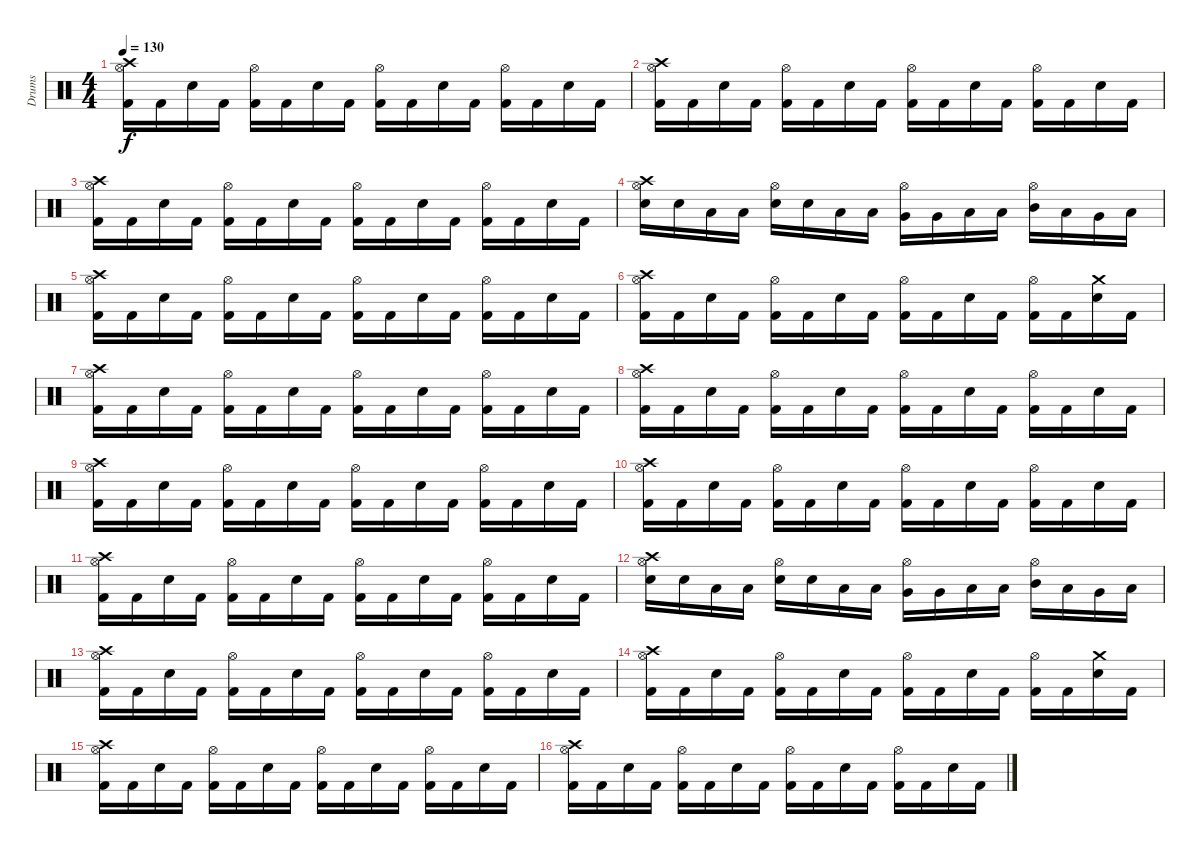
\track ("Drums" "Drums") {instrument percussion}
\staff {score}
\articulation defaults
\ts (4 4)
\tempo 130
\clef neutral
\ks c
("Crash high (hit)" "Hi-Hat (open)" "Kick (hit) 2").16{dy f} "Kick (hit) 2".16 "Electric Snare (hit)".16 "Kick (hit) 2".16 ("Hi-Hat (open)" "Kick (hit) 2").16 "Kick (hit) 2".16 "Electric Snare (hit)".16 "Kick (hit) 2".16 ("Hi-Hat (open)" "Kick (hit) 2").16 "Kick (hit) 2".16 "Electric Snare (hit)".16 "Kick (hit) 2".16 ("Hi-Hat (open)" "Kick (hit) 2").16 "Kick (hit) 2".16 "Electric Snare (hit)".16 "Kick (hit) 2".16 |
("Crash high (hit)" "Hi-Hat (open)" "Kick (hit) 2").16 "Kick (hit) 2".16 "Electric Snare (hit)".16 "Kick (hit) 2".16 ("Hi-Hat (open)" "Kick (hit) 2").16 "Kick (hit) 2".16 "Electric Snare (hit)".16 "Kick (hit) 2".16 ("Hi-Hat (open)" "Kick (hit) 2").16 "Kick (hit) 2".16 "Electric Snare (hit)".16 "Kick (hit) 2".16 ("Hi-Hat (open)" "Kick (hit) 2").16 "Kick (hit) 2".16 "Electric Snare (hit)".16 "Kick (hit) 2".16 |
("Crash high (hit)" "Hi-Hat (open)" "Kick (hit) 2").16 "Kick (hit) 2".16 "Electric Snare (hit)".16 "Kick (hit) 2".16 ("Hi-Hat (open)" "Kick (hit) 2").16 "Kick (hit) 2".16 "Electric Snare (hit)".16 "Kick (hit) 2".16 ("Hi-Hat (open)" "Kick (hit) 2").16 "Kick (hit) 2".16 "Electric Snare (hit)".16 "Kick (hit) 2".16 ("Hi-Hat (open)" "Kick (hit) 2").16 "Kick (hit) 2".16 "Electric Snare (hit)".16 "Kick (hit) 2".16 |
("Crash high (hit)" "Hi-Hat (open)" "Electric Snare (hit)").16 "Electric Snare (hit)".16 "Low Tom (hit)".16 "Low Tom (hit)".16 ("Hi-Hat (open)" "Electric Snare (hit)").16 "Electric Snare (hit)".16 "Low Tom (hit)".16 "Low Tom (hit)".16 ("Hi-Hat (open)" "Very Low Tom (hit)").16 "Very Low Tom (hit)".16 "Low Floor Tom (hit)".16 "Low Floor Tom (hit)".16 ("Hi-Hat (open)" "Mid Tom (hit)").16 "Low Tom (hit)".16 "Very Low Tom (hit)".16 "Low Floor Tom (hit)".16 |
("Crash high (hit)" "Hi-Hat (open)" "Kick (hit) 2").16 "Kick (hit) 2".16 "Electric Snare (hit)".16 "Kick (hit) 2".16 ("Hi-Hat (open)" "Kick (hit) 2").16 "Kick (hit) 2".16 "Electric Snare (hit)".16 "Kick (hit) 2".16 ("Hi-Hat (open)" "Kick (hit) 2").16 "Kick (hit) 2".16 "Electric Snare (hit)".16 "Kick (hit) 2".16 ("Hi-Hat (open)" "Kick (hit) 2").16 "Kick (hit) 2".16 "Electric Snare (hit)".16 "Kick (hit) 2".16 |
("Crash high (hit)" "Hi-Hat (open)" "Kick (hit) 2").16 "Kick (hit) 2".16 "Electric Snare (hit)".16 "Kick (hit) 2".16 ("Hi-Hat (open)" "Kick (hit) 2").16 "Kick (hit) 2".16 "Electric Snare (hit)".16 "Kick (hit) 2".16 ("Hi-Hat (open)" "Kick (hit) 2").16 "Kick (hit) 2".16 "Electric Snare (hit)".16 "Kick (hit) 2".16 ("Hi-Hat (open)" "Kick (hit) 2").16 "Kick (hit) 2".16 ("Crash medium (hit)" "Electric Snare (hit)").16 "Kick (hit) 2".16 |
("Crash high (hit)" "Hi-Hat (open)" "Kick (hit) 2").16 "Kick (hit) 2".16 "Electric Snare (hit)".16 "Kick (hit) 2".16 ("Hi-Hat (open)" "Kick (hit) 2").16 "Kick (hit) 2".16 "Electric Snare (hit)".16 "Kick (hit) 2".16 ("Hi-Hat (open)" "Kick (hit) 2").16 "Kick (hit) 2".16 "Electric Snare (hit)".16 "Kick (hit) 2".16 ("Hi-Hat (open)" "Kick (hit) 2").16 "Kick (hit) 2".16 "Electric Snare (hit)".16 "Kick (hit) 2".16 |
("Crash high (hit)" "Hi-Hat (open)" "Kick (hit) 2").16 "Kick (hit) 2".16 "Electric Snare (hit)".16 "Kick (hit) 2".16 ("Hi-Hat (open)" "Kick (hit) 2").16 "Kick (hit) 2".16 "Electric Snare (hit)".16 "Kick (hit) 2".16 ("Hi-Hat (open)" "Kick (hit) 2").16 "Kick (hit) 2".16 "Electric Snare (hit)".16 "Kick (hit) 2".16 ("Hi-Hat (open)" "Kick (hit) 2").16 "Kick (hit) 2".16 "Electric Snare (hit)".16 "Kick (hit) 2".16 |
("Crash high (hit)" "Hi-Hat (open)" "Kick (hit) 2").16 "Kick (hit) 2".16 "Electric Snare (hit)".16 "Kick (hit) 2".16 ("Hi-Hat (open)" "Kick (hit) 2").16 "Kick (hit) 2".16 "Electric Snare (hit)".16 "Kick (hit) 2".16 ("Hi-Hat (open)" "Kick (hit) 2").16 "Kick (hit) 2".16 "Electric Snare (hit)".16 "Kick (hit) 2".16 ("Hi-Hat (open)" "Kick (hit) 2").16 "Kick (hit) 2".16 "Electric Snare (hit)".16 "Kick (hit) 2".16 |
("Crash high (hit)" "Hi-Hat (open)" "Kick (hit) 2").16 "Kick (hit) 2".16 "Electric Snare (hit)".16 "Kick (hit) 2".16 ("Hi-Hat (open)" "Kick (hit) 2").16 "Kick (hit) 2".16 "Electric Snare (hit)".16 "Kick (hit) 2".16 ("Hi-Hat (open)" "Kick (hit) 2").16 "Kick (hit) 2".16 "Electric Snare (hit)".16 "Kick (hit) 2".16 ("Hi-Hat (open)" "Kick (hit) 2").16 "Kick (hit) 2".16 "Electric Snare (hit)".16 "Kick (hit) 2".16 |
("Crash high (hit)" "Hi-Hat (open)" "Kick (hit) 2").16 "Kick (hit) 2".16 "Electric Snare (hit)".16 "Kick (hit) 2".16 ("Hi-Hat (open)" "Kick (hit) 2").16 "Kick (hit) 2".16 "Electric Snare (hit)".16 "Kick (hit) 2".16 ("Hi-Hat (open)" "Kick (hit) 2").16 "Kick (hit) 2".16 "Electric Snare (hit)".16 "Kick (hit) 2".16 ("Hi-Hat (open)" "Kick (hit) 2").16 "Kick (hit) 2".16 "Electric Snare (hit)".16 "Kick (hit) 2".16 |
("Crash high (hit)" "Hi-Hat (open)" "Electric Snare (hit)").16 "Electric Snare (hit)".16 "Low Tom (hit)".16 "Low Tom (hit)".16 ("Hi-Hat (open)" "Electric Snare (hit)").16 "Electric Snare (hit)".16 "Low Tom (hit)".16 "Low Tom (hit)".16 ("Hi-Hat (open)" "Very Low Tom (hit)").16 "Very Low Tom (hit)".16 "Low Floor Tom (hit)".16 "Low Floor Tom (hit)".16 ("Hi-Hat (open)" "Mid Tom (hit)").16 "Low Tom (hit)".16 "Very Low Tom (hit)".16 "Low Floor Tom (hit)".16 |
("Crash high (hit)" "Hi-Hat (open)" "Kick (hit) 2").16 "Kick (hit) 2".16 "Electric Snare (hit)".16 "Kick (hit) 2".16 ("Hi-Hat (open)" "Kick (hit) 2").16 "Kick (hit) 2".16 "Electric Snare (hit)".16 "Kick (hit) 2".16 ("Hi-Hat (open)" "Kick (hit) 2").16 "Kick (hit) 2".16 "Electric Snare (hit)".16 "Kick (hit) 2".16 ("Hi-Hat (open)" "Kick (hit) 2").16 "Kick (hit) 2".16 "Electric Snare (hit)".16 "Kick (hit) 2".16 |
("Crash high (hit)" "Hi-Hat (open)" "Kick (hit) 2").16 "Kick (hit) 2".16 "Electric Snare (hit)".16 "Kick (hit) 2".16 ("Hi-Hat (open)" "Kick (hit) 2").16 "Kick (hit) 2".16 "Electric Snare (hit)".16 "Kick (hit) 2".16 ("Hi-Hat (open)" "Kick (hit) 2").16 "Kick (hit) 2".16 "Electric Snare (hit)".16 "Kick (hit) 2".16 ("Hi-Hat (open)" "Kick (hit) 2").16 "Kick (hit) 2".16 ("Crash medium (hit)" "Electric Snare (hit)").16 "Kick (hit) 2".16 |
("Crash high (hit)" "Hi-Hat (open)" "Kick (hit) 2").16 "Kick (hit) 2".16 "Electric Snare (hit)".16 "Kick (hit) 2".16 ("Hi-Hat (open)" "Kick (hit) 2").16 "Kick (hit) 2".16 "Electric Snare (hit)".16 "Kick (hit) 2".16 ("Hi-Hat (open)" "Kick (hit) 2").16 "Kick (hit) 2".16 "Electric Snare (hit)".16 "Kick (hit) 2".16 ("Hi-Hat (open)" "Kick (hit) 2").16 "Kick (hit) 2".16 "Electric Snare (hit)".16 "Kick (hit) 2".16 |
("Crash high (hit)" "Hi-Hat (open)" "Kick (hit) 2").16 "Kick (hit) 2".16 "Electric Snare (hit)".16 "Kick (hit) 2".16 ("Hi-Hat (open)" "Kick (hit) 2").16 "Kick (hit) 2".16 "Electric Snare (hit)".16 "Kick (hit) 2".16 ("Hi-Hat (open)" "Kick (hit) 2").16 "Kick (hit) 2".16 "Electric Snare (hit)".16 "Kick (hit) 2".16 ("Hi-Hat (open)" "Kick (hit) 2").16 "Kick (hit) 2".16 "Electric Snare (hit)".16 "Kick (hit) 2".16
